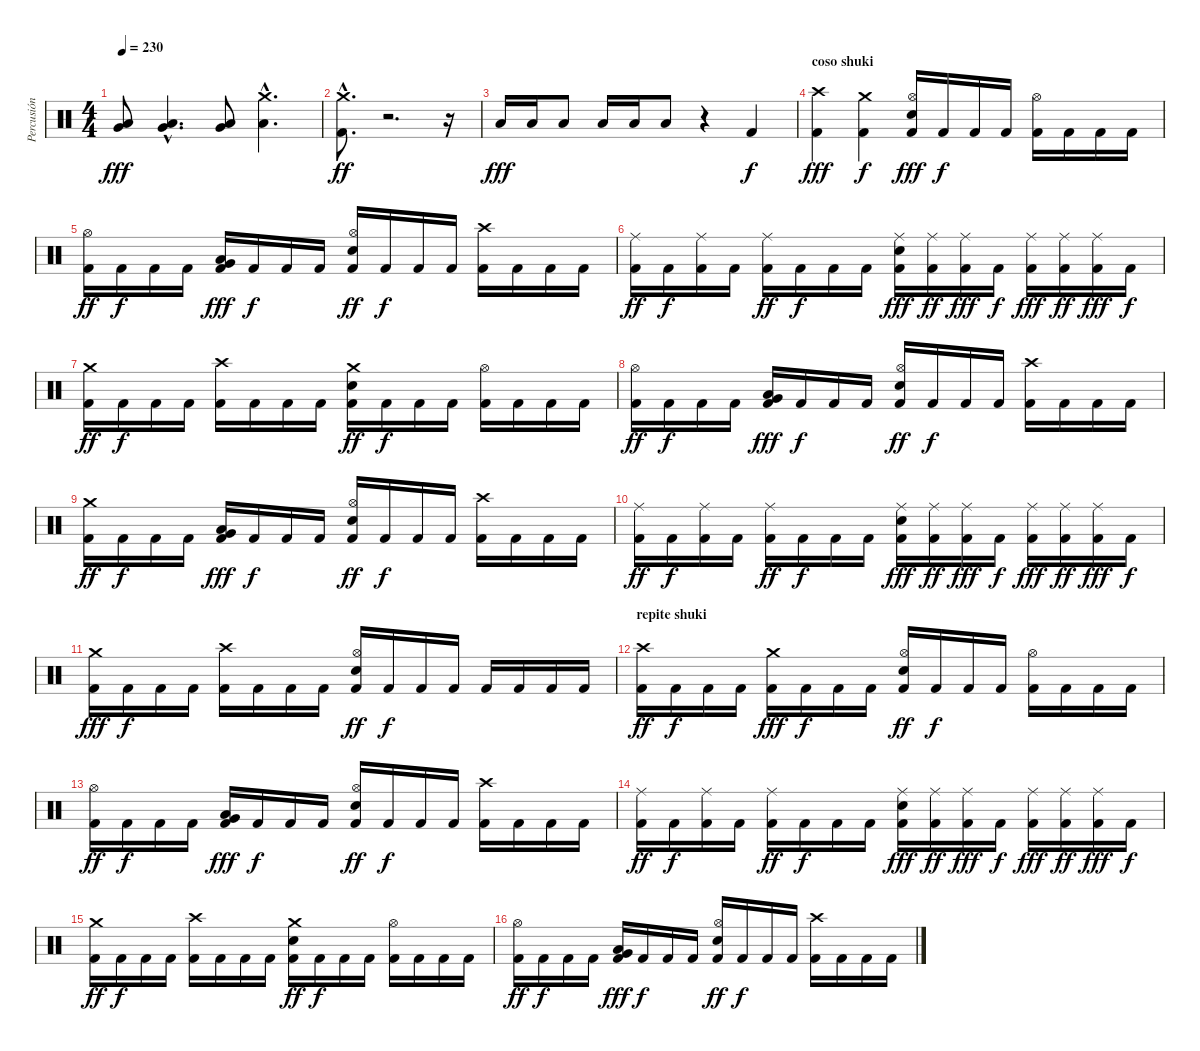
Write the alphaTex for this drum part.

\track ("Percusión" "Percusión") {instrument percussion}
\staff {score}
\articulation defaults
\ts (4 4)
\tempo 230
\clef neutral
\ks c
("Very Low Tom (hit)" "Low Floor Tom (hit)").8{dy fff} ("Very Low Tom (hit)"{hac} "Low Floor Tom (hit)"{hac}).4{d} ("Very Low Tom (hit)" "Low Floor Tom (hit)").8 ("Crash medium (hit)"{hac} "Low Floor Tom (hit)"{hac}).4{d} |
("Crash medium (hit)"{hac} "Kick (hit) 2"{hac}).8{d dy ff} r.2{d volume 0} r.16 |
"Low Floor Tom (hit)".16{dy fff volume 14} "Low Floor Tom (hit)".16 "Low Floor Tom (hit)".8 "Low Floor Tom (hit)".16 "Low Floor Tom (hit)".16 "Low Floor Tom (hit)".8 r.4 "Kick (hit) 2".4{dy f} |
\section ("" "coso shuki")
("Crash high (hit)" "Kick (hit) 2").4{dy fff} ("Crash medium (hit)" "Kick (hit) 2").4{dy f} ("Hi-Hat (open)" "Kick (hit) 2" "Snare (hit) 2").16{dy fff} "Kick (hit) 2".16{dy f} "Kick (hit) 2".16 "Kick (hit) 2".16 ("Hi-Hat (open)" "Kick (hit) 2").16 "Kick (hit) 2".16 "Kick (hit) 2".16 "Kick (hit) 2".16 |
("Hi-Hat (open)" "Kick (hit) 2").16{dy ff} "Kick (hit) 2".16{dy f} "Kick (hit) 2".16 "Kick (hit) 2".16 ("Kick (hit) 2" "Very Low Tom (hit)" "Low Floor Tom (hit)").16{dy fff} "Kick (hit) 2".16{dy f} "Kick (hit) 2".16 "Kick (hit) 2".16 ("Hi-Hat (open)" "Kick (hit) 2" "Snare (hit) 2").16{dy ff} "Kick (hit) 2".16{dy f} "Kick (hit) 2".16 "Kick (hit) 2".16 ("Crash high (hit)" "Kick (hit) 2").16 "Kick (hit) 2".16 "Kick (hit) 2".16 "Kick (hit) 2".16 |
("Ride (middle)" "Kick (hit) 2").16{dy ff} "Kick (hit) 2".16{dy f} ("Ride (middle)" "Kick (hit) 2").16 "Kick (hit) 2".16 ("Ride (middle)" "Kick (hit) 2").16{dy ff} "Kick (hit) 2".16{dy f} "Kick (hit) 2".16 "Kick (hit) 2".16 ("Ride (middle)" "Kick (hit) 2" "Snare (hit) 2").16{dy fff} ("Ride (middle)" "Kick (hit) 2").16{dy ff} ("Ride (middle)" "Kick (hit) 2").16{dy fff} "Kick (hit) 2".16{dy f} ("Ride (middle)" "Kick (hit) 2").16{dy fff} ("Ride (middle)" "Kick (hit) 2").16{dy ff} ("Ride (middle)" "Kick (hit) 2").16{dy fff} "Kick (hit) 2".16{dy f} |
("Crash medium (hit)" "Kick (hit) 2").16{dy ff} "Kick (hit) 2".16{dy f} "Kick (hit) 2".16 "Kick (hit) 2".16 ("Crash high (hit)" "Kick (hit) 2").16 "Kick (hit) 2".16 "Kick (hit) 2".16 "Kick (hit) 2".16 ("Crash medium (hit)" "Kick (hit) 2" "Snare (hit) 2").16{dy ff} "Kick (hit) 2".16{dy f} "Kick (hit) 2".16 "Kick (hit) 2".16 ("Hi-Hat (open)" "Kick (hit) 2").16 "Kick (hit) 2".16 "Kick (hit) 2".16 "Kick (hit) 2".16 |
("Hi-Hat (open)" "Kick (hit) 2").16{dy ff} "Kick (hit) 2".16{dy f} "Kick (hit) 2".16 "Kick (hit) 2".16 ("Kick (hit) 2" "Very Low Tom (hit)" "Low Floor Tom (hit)").16{dy fff} "Kick (hit) 2".16{dy f} "Kick (hit) 2".16 "Kick (hit) 2".16 ("Hi-Hat (open)" "Kick (hit) 2" "Snare (hit) 2").16{dy ff} "Kick (hit) 2".16{dy f} "Kick (hit) 2".16 "Kick (hit) 2".16 ("Crash high (hit)" "Kick (hit) 2").16 "Kick (hit) 2".16 "Kick (hit) 2".16 "Kick (hit) 2".16 |
("Crash medium (hit)" "Kick (hit) 2").16{dy ff} "Kick (hit) 2".16{dy f} "Kick (hit) 2".16 "Kick (hit) 2".16 ("Kick (hit) 2" "Very Low Tom (hit)" "Low Floor Tom (hit)").16{dy fff} "Kick (hit) 2".16{dy f} "Kick (hit) 2".16 "Kick (hit) 2".16 ("Hi-Hat (open)" "Kick (hit) 2" "Snare (hit) 2").16{dy ff} "Kick (hit) 2".16{dy f} "Kick (hit) 2".16 "Kick (hit) 2".16 ("Crash high (hit)" "Kick (hit) 2").16 "Kick (hit) 2".16 "Kick (hit) 2".16 "Kick (hit) 2".16 |
("Ride (middle)" "Kick (hit) 2").16{dy ff} "Kick (hit) 2".16{dy f} ("Ride (middle)" "Kick (hit) 2").16 "Kick (hit) 2".16 ("Ride (middle)" "Kick (hit) 2").16{dy ff} "Kick (hit) 2".16{dy f} "Kick (hit) 2".16 "Kick (hit) 2".16 ("Ride (middle)" "Kick (hit) 2" "Snare (hit) 2").16{dy fff} ("Ride (middle)" "Kick (hit) 2").16{dy ff} ("Ride (middle)" "Kick (hit) 2").16{dy fff} "Kick (hit) 2".16{dy f} ("Ride (middle)" "Kick (hit) 2").16{dy fff} ("Ride (middle)" "Kick (hit) 2").16{dy ff} ("Ride (middle)" "Kick (hit) 2").16{dy fff} "Kick (hit) 2".16{dy f} |
("Crash medium (hit)" "Kick (hit) 2").16{dy fff} "Kick (hit) 2".16{dy f} "Kick (hit) 2".16 "Kick (hit) 2".16 ("Crash high (hit)" "Kick (hit) 2").16 "Kick (hit) 2".16 "Kick (hit) 2".16 "Kick (hit) 2".16 ("Hi-Hat (open)" "Kick (hit) 2" "Snare (hit) 2").16{dy ff} "Kick (hit) 2".16{dy f} "Kick (hit) 2".16 "Kick (hit) 2".16 "Kick (hit) 2".16 "Kick (hit) 2".16 "Kick (hit) 2".16 "Kick (hit) 2".16 |
\section ("" "repite shuki")
("Crash high (hit)" "Kick (hit) 2").16{dy ff} "Kick (hit) 2".16{dy f} "Kick (hit) 2".16 "Kick (hit) 2".16 ("Crash medium (hit)" "Kick (hit) 2").16{dy fff} "Kick (hit) 2".16{dy f} "Kick (hit) 2".16 "Kick (hit) 2".16 ("Hi-Hat (open)" "Kick (hit) 2" "Snare (hit) 2").16{dy ff} "Kick (hit) 2".16{dy f} "Kick (hit) 2".16 "Kick (hit) 2".16 ("Hi-Hat (open)" "Kick (hit) 2").16 "Kick (hit) 2".16 "Kick (hit) 2".16 "Kick (hit) 2".16 |
("Hi-Hat (open)" "Kick (hit) 2").16{dy ff} "Kick (hit) 2".16{dy f} "Kick (hit) 2".16 "Kick (hit) 2".16 ("Kick (hit) 2" "Very Low Tom (hit)" "Low Floor Tom (hit)").16{dy fff} "Kick (hit) 2".16{dy f} "Kick (hit) 2".16 "Kick (hit) 2".16 ("Hi-Hat (open)" "Kick (hit) 2" "Snare (hit) 2").16{dy ff} "Kick (hit) 2".16{dy f} "Kick (hit) 2".16 "Kick (hit) 2".16 ("Crash high (hit)" "Kick (hit) 2").16 "Kick (hit) 2".16 "Kick (hit) 2".16 "Kick (hit) 2".16 |
("Ride (middle)" "Kick (hit) 2").16{dy ff} "Kick (hit) 2".16{dy f} ("Ride (middle)" "Kick (hit) 2").16 "Kick (hit) 2".16 ("Ride (middle)" "Kick (hit) 2").16{dy ff} "Kick (hit) 2".16{dy f} "Kick (hit) 2".16 "Kick (hit) 2".16 ("Ride (middle)" "Kick (hit) 2" "Snare (hit) 2").16{dy fff} ("Ride (middle)" "Kick (hit) 2").16{dy ff} ("Ride (middle)" "Kick (hit) 2").16{dy fff} "Kick (hit) 2".16{dy f} ("Ride (middle)" "Kick (hit) 2").16{dy fff} ("Ride (middle)" "Kick (hit) 2").16{dy ff} ("Ride (middle)" "Kick (hit) 2").16{dy fff} "Kick (hit) 2".16{dy f} |
("Crash medium (hit)" "Kick (hit) 2").16{dy ff} "Kick (hit) 2".16{dy f} "Kick (hit) 2".16 "Kick (hit) 2".16 ("Crash high (hit)" "Kick (hit) 2").16 "Kick (hit) 2".16 "Kick (hit) 2".16 "Kick (hit) 2".16 ("Crash medium (hit)" "Kick (hit) 2" "Snare (hit) 2").16{dy ff} "Kick (hit) 2".16{dy f} "Kick (hit) 2".16 "Kick (hit) 2".16 ("Hi-Hat (open)" "Kick (hit) 2").16 "Kick (hit) 2".16 "Kick (hit) 2".16 "Kick (hit) 2".16 |
("Hi-Hat (open)" "Kick (hit) 2").16{dy ff} "Kick (hit) 2".16{dy f} "Kick (hit) 2".16 "Kick (hit) 2".16 ("Kick (hit) 2" "Very Low Tom (hit)" "Low Floor Tom (hit)").16{dy fff} "Kick (hit) 2".16{dy f} "Kick (hit) 2".16 "Kick (hit) 2".16 ("Hi-Hat (open)" "Kick (hit) 2" "Snare (hit) 2").16{dy ff} "Kick (hit) 2".16{dy f} "Kick (hit) 2".16 "Kick (hit) 2".16 ("Crash high (hit)" "Kick (hit) 2").16 "Kick (hit) 2".16 "Kick (hit) 2".16 "Kick (hit) 2".16
